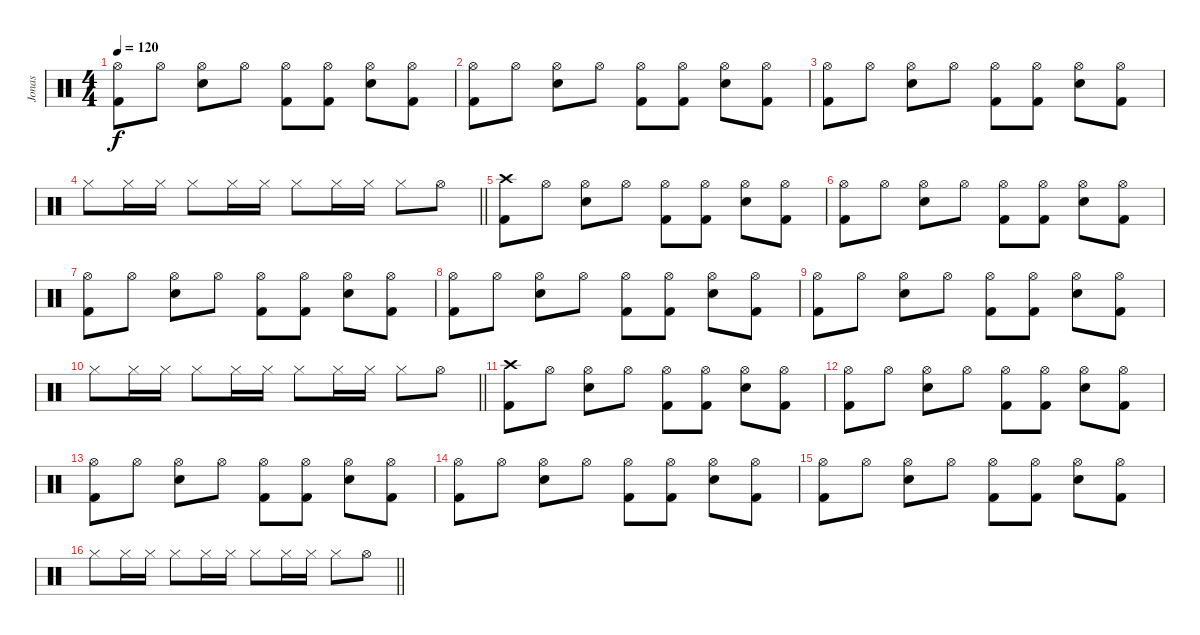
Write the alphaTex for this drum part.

\track ("Jonas" "Jonas") {instrument percussion}
\staff {score}
\articulation defaults
\ts (4 4)
\tempo 120
\clef neutral
\ks c
("Hi-Hat (open)" "Kick (hit) 2").8{dy f} "Hi-Hat (open)".8 ("Hi-Hat (open)" "Snare (hit) 2").8 "Hi-Hat (open)".8 ("Hi-Hat (open)" "Kick (hit) 2").8 ("Hi-Hat (open)" "Kick (hit) 2").8 ("Hi-Hat (open)" "Snare (hit) 2").8 ("Hi-Hat (open)" "Kick (hit) 2").8 |
("Hi-Hat (open)" "Kick (hit) 2").8 "Hi-Hat (open)".8 ("Hi-Hat (open)" "Snare (hit) 2").8 "Hi-Hat (open)".8 ("Hi-Hat (open)" "Kick (hit) 2").8 ("Hi-Hat (open)" "Kick (hit) 2").8 ("Hi-Hat (open)" "Snare (hit) 2").8 ("Hi-Hat (open)" "Kick (hit) 2").8 |
("Hi-Hat (open)" "Kick (hit) 2").8 "Hi-Hat (open)".8 ("Hi-Hat (open)" "Snare (hit) 2").8 "Hi-Hat (open)".8 ("Hi-Hat (open)" "Kick (hit) 2").8 ("Hi-Hat (open)" "Kick (hit) 2").8 ("Hi-Hat (open)" "Snare (hit) 2").8 ("Hi-Hat (open)" "Kick (hit) 2").8 |
\barLineRight lightlight "Hi-Hat (closed)".8 "Hi-Hat (closed)".16 "Hi-Hat (closed)".16 "Hi-Hat (closed)".8 "Hi-Hat (closed)".16 "Hi-Hat (closed)".16 "Hi-Hat (closed)".8 "Hi-Hat (closed)".16 "Hi-Hat (closed)".16 "Hi-Hat (closed)".8 "Hi-Hat (open)".8
|
("Crash high (hit)" "Kick (hit) 2").8 "Hi-Hat (open)".8 ("Hi-Hat (open)" "Snare (hit) 2").8 "Hi-Hat (open)".8 ("Hi-Hat (open)" "Kick (hit) 2").8 ("Hi-Hat (open)" "Kick (hit) 2").8 ("Hi-Hat (open)" "Snare (hit) 2").8 ("Hi-Hat (open)" "Kick (hit) 2").8 |
("Hi-Hat (open)" "Kick (hit) 2").8 "Hi-Hat (open)".8 ("Hi-Hat (open)" "Snare (hit) 2").8 "Hi-Hat (open)".8 ("Hi-Hat (open)" "Kick (hit) 2").8 ("Hi-Hat (open)" "Kick (hit) 2").8 ("Hi-Hat (open)" "Snare (hit) 2").8 ("Hi-Hat (open)" "Kick (hit) 2").8 |
("Hi-Hat (open)" "Kick (hit) 2").8 "Hi-Hat (open)".8 ("Hi-Hat (open)" "Snare (hit) 2").8 "Hi-Hat (open)".8 ("Hi-Hat (open)" "Kick (hit) 2").8 ("Hi-Hat (open)" "Kick (hit) 2").8 ("Hi-Hat (open)" "Snare (hit) 2").8 ("Hi-Hat (open)" "Kick (hit) 2").8 |
("Hi-Hat (open)" "Kick (hit) 2").8 "Hi-Hat (open)".8 ("Hi-Hat (open)" "Snare (hit) 2").8 "Hi-Hat (open)".8 ("Hi-Hat (open)" "Kick (hit) 2").8 ("Hi-Hat (open)" "Kick (hit) 2").8 ("Hi-Hat (open)" "Snare (hit) 2").8 ("Hi-Hat (open)" "Kick (hit) 2").8 |
("Hi-Hat (open)" "Kick (hit) 2").8 "Hi-Hat (open)".8 ("Hi-Hat (open)" "Snare (hit) 2").8 "Hi-Hat (open)".8 ("Hi-Hat (open)" "Kick (hit) 2").8 ("Hi-Hat (open)" "Kick (hit) 2").8 ("Hi-Hat (open)" "Snare (hit) 2").8 ("Hi-Hat (open)" "Kick (hit) 2").8 |
\barLineRight lightlight "Hi-Hat (closed)".8 "Hi-Hat (closed)".16 "Hi-Hat (closed)".16 "Hi-Hat (closed)".8 "Hi-Hat (closed)".16 "Hi-Hat (closed)".16 "Hi-Hat (closed)".8 "Hi-Hat (closed)".16 "Hi-Hat (closed)".16 "Hi-Hat (closed)".8 "Hi-Hat (open)".8
|
("Crash high (hit)" "Kick (hit) 2").8 "Hi-Hat (open)".8 ("Hi-Hat (open)" "Snare (hit) 2").8 "Hi-Hat (open)".8 ("Hi-Hat (open)" "Kick (hit) 2").8 ("Hi-Hat (open)" "Kick (hit) 2").8 ("Hi-Hat (open)" "Snare (hit) 2").8 ("Hi-Hat (open)" "Kick (hit) 2").8 |
("Hi-Hat (open)" "Kick (hit) 2").8 "Hi-Hat (open)".8 ("Hi-Hat (open)" "Snare (hit) 2").8 "Hi-Hat (open)".8 ("Hi-Hat (open)" "Kick (hit) 2").8 ("Hi-Hat (open)" "Kick (hit) 2").8 ("Hi-Hat (open)" "Snare (hit) 2").8 ("Hi-Hat (open)" "Kick (hit) 2").8 |
("Hi-Hat (open)" "Kick (hit) 2").8 "Hi-Hat (open)".8 ("Hi-Hat (open)" "Snare (hit) 2").8 "Hi-Hat (open)".8 ("Hi-Hat (open)" "Kick (hit) 2").8 ("Hi-Hat (open)" "Kick (hit) 2").8 ("Hi-Hat (open)" "Snare (hit) 2").8 ("Hi-Hat (open)" "Kick (hit) 2").8 |
("Hi-Hat (open)" "Kick (hit) 2").8 "Hi-Hat (open)".8 ("Hi-Hat (open)" "Snare (hit) 2").8 "Hi-Hat (open)".8 ("Hi-Hat (open)" "Kick (hit) 2").8 ("Hi-Hat (open)" "Kick (hit) 2").8 ("Hi-Hat (open)" "Snare (hit) 2").8 ("Hi-Hat (open)" "Kick (hit) 2").8 |
("Hi-Hat (open)" "Kick (hit) 2").8 "Hi-Hat (open)".8 ("Hi-Hat (open)" "Snare (hit) 2").8 "Hi-Hat (open)".8 ("Hi-Hat (open)" "Kick (hit) 2").8 ("Hi-Hat (open)" "Kick (hit) 2").8 ("Hi-Hat (open)" "Snare (hit) 2").8 ("Hi-Hat (open)" "Kick (hit) 2").8 |
\barLineRight lightlight "Hi-Hat (closed)".8 "Hi-Hat (closed)".16 "Hi-Hat (closed)".16 "Hi-Hat (closed)".8 "Hi-Hat (closed)".16 "Hi-Hat (closed)".16 "Hi-Hat (closed)".8 "Hi-Hat (closed)".16 "Hi-Hat (closed)".16 "Hi-Hat (closed)".8 "Hi-Hat (open)".8
